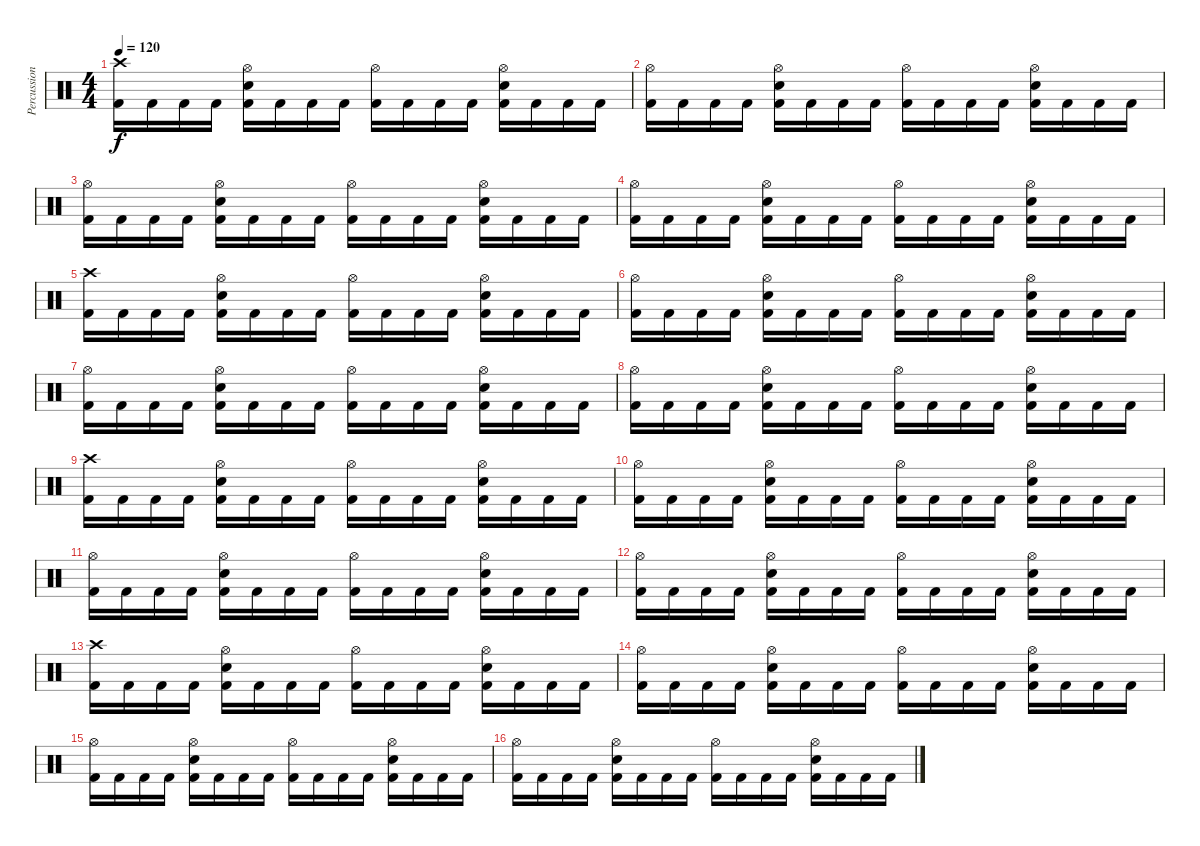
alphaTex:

\track ("Percussion" "Percussion") {instrument percussion}
\staff {score}
\articulation defaults
\ts (4 4)
\tempo 120
\clef neutral
\ks c
("Kick (hit) 2" "Crash high (hit)").16{dy f} "Kick (hit) 2".16 "Kick (hit) 2".16 "Kick (hit) 2".16 ("Kick (hit) 2" "Electric Snare (hit)" "Hi-Hat (open)").16 "Kick (hit) 2".16 "Kick (hit) 2".16 "Kick (hit) 2".16 ("Kick (hit) 2" "Hi-Hat (open)").16 "Kick (hit) 2".16 "Kick (hit) 2".16 "Kick (hit) 2".16 ("Kick (hit) 2" "Hi-Hat (open)" "Electric Snare (hit)").16 "Kick (hit) 2".16 "Kick (hit) 2".16 "Kick (hit) 2".16 |
("Kick (hit) 2" "Hi-Hat (open)").16 "Kick (hit) 2".16 "Kick (hit) 2".16 "Kick (hit) 2".16 ("Kick (hit) 2" "Electric Snare (hit)" "Hi-Hat (open)").16 "Kick (hit) 2".16 "Kick (hit) 2".16 "Kick (hit) 2".16 ("Kick (hit) 2" "Hi-Hat (open)").16 "Kick (hit) 2".16 "Kick (hit) 2".16 "Kick (hit) 2".16 ("Kick (hit) 2" "Hi-Hat (open)" "Electric Snare (hit)").16 "Kick (hit) 2".16 "Kick (hit) 2".16 "Kick (hit) 2".16 |
("Kick (hit) 2" "Hi-Hat (open)").16 "Kick (hit) 2".16 "Kick (hit) 2".16 "Kick (hit) 2".16 ("Kick (hit) 2" "Electric Snare (hit)" "Hi-Hat (open)").16 "Kick (hit) 2".16 "Kick (hit) 2".16 "Kick (hit) 2".16 ("Kick (hit) 2" "Hi-Hat (open)").16 "Kick (hit) 2".16 "Kick (hit) 2".16 "Kick (hit) 2".16 ("Kick (hit) 2" "Hi-Hat (open)" "Electric Snare (hit)").16 "Kick (hit) 2".16 "Kick (hit) 2".16 "Kick (hit) 2".16 |
("Kick (hit) 2" "Hi-Hat (open)").16 "Kick (hit) 2".16 "Kick (hit) 2".16 "Kick (hit) 2".16 ("Kick (hit) 2" "Electric Snare (hit)" "Hi-Hat (open)").16 "Kick (hit) 2".16 "Kick (hit) 2".16 "Kick (hit) 2".16 ("Kick (hit) 2" "Hi-Hat (open)").16 "Kick (hit) 2".16 "Kick (hit) 2".16 "Kick (hit) 2".16 ("Kick (hit) 2" "Hi-Hat (open)" "Electric Snare (hit)").16 "Kick (hit) 2".16 "Kick (hit) 2".16 "Kick (hit) 2".16 |
("Kick (hit) 2" "Crash high (hit)").16 "Kick (hit) 2".16 "Kick (hit) 2".16 "Kick (hit) 2".16 ("Kick (hit) 2" "Electric Snare (hit)" "Hi-Hat (open)").16 "Kick (hit) 2".16 "Kick (hit) 2".16 "Kick (hit) 2".16 ("Kick (hit) 2" "Hi-Hat (open)").16 "Kick (hit) 2".16 "Kick (hit) 2".16 "Kick (hit) 2".16 ("Kick (hit) 2" "Hi-Hat (open)" "Electric Snare (hit)").16 "Kick (hit) 2".16 "Kick (hit) 2".16 "Kick (hit) 2".16 |
("Kick (hit) 2" "Hi-Hat (open)").16 "Kick (hit) 2".16 "Kick (hit) 2".16 "Kick (hit) 2".16 ("Kick (hit) 2" "Electric Snare (hit)" "Hi-Hat (open)").16 "Kick (hit) 2".16 "Kick (hit) 2".16 "Kick (hit) 2".16 ("Kick (hit) 2" "Hi-Hat (open)").16 "Kick (hit) 2".16 "Kick (hit) 2".16 "Kick (hit) 2".16 ("Kick (hit) 2" "Hi-Hat (open)" "Electric Snare (hit)").16 "Kick (hit) 2".16 "Kick (hit) 2".16 "Kick (hit) 2".16 |
("Kick (hit) 2" "Hi-Hat (open)").16 "Kick (hit) 2".16 "Kick (hit) 2".16 "Kick (hit) 2".16 ("Kick (hit) 2" "Electric Snare (hit)" "Hi-Hat (open)").16 "Kick (hit) 2".16 "Kick (hit) 2".16 "Kick (hit) 2".16 ("Kick (hit) 2" "Hi-Hat (open)").16 "Kick (hit) 2".16 "Kick (hit) 2".16 "Kick (hit) 2".16 ("Kick (hit) 2" "Hi-Hat (open)" "Electric Snare (hit)").16 "Kick (hit) 2".16 "Kick (hit) 2".16 "Kick (hit) 2".16 |
("Kick (hit) 2" "Hi-Hat (open)").16 "Kick (hit) 2".16 "Kick (hit) 2".16 "Kick (hit) 2".16 ("Kick (hit) 2" "Electric Snare (hit)" "Hi-Hat (open)").16 "Kick (hit) 2".16 "Kick (hit) 2".16 "Kick (hit) 2".16 ("Kick (hit) 2" "Hi-Hat (open)").16 "Kick (hit) 2".16 "Kick (hit) 2".16 "Kick (hit) 2".16 ("Kick (hit) 2" "Hi-Hat (open)" "Electric Snare (hit)").16 "Kick (hit) 2".16 "Kick (hit) 2".16 "Kick (hit) 2".16 |
("Kick (hit) 2" "Crash high (hit)").16 "Kick (hit) 2".16 "Kick (hit) 2".16 "Kick (hit) 2".16 ("Kick (hit) 2" "Electric Snare (hit)" "Hi-Hat (open)").16 "Kick (hit) 2".16 "Kick (hit) 2".16 "Kick (hit) 2".16 ("Kick (hit) 2" "Hi-Hat (open)").16 "Kick (hit) 2".16 "Kick (hit) 2".16 "Kick (hit) 2".16 ("Kick (hit) 2" "Hi-Hat (open)" "Electric Snare (hit)").16 "Kick (hit) 2".16 "Kick (hit) 2".16 "Kick (hit) 2".16 |
("Kick (hit) 2" "Hi-Hat (open)").16 "Kick (hit) 2".16 "Kick (hit) 2".16 "Kick (hit) 2".16 ("Kick (hit) 2" "Electric Snare (hit)" "Hi-Hat (open)").16 "Kick (hit) 2".16 "Kick (hit) 2".16 "Kick (hit) 2".16 ("Kick (hit) 2" "Hi-Hat (open)").16 "Kick (hit) 2".16 "Kick (hit) 2".16 "Kick (hit) 2".16 ("Kick (hit) 2" "Hi-Hat (open)" "Electric Snare (hit)").16 "Kick (hit) 2".16 "Kick (hit) 2".16 "Kick (hit) 2".16 |
("Kick (hit) 2" "Hi-Hat (open)").16 "Kick (hit) 2".16 "Kick (hit) 2".16 "Kick (hit) 2".16 ("Kick (hit) 2" "Electric Snare (hit)" "Hi-Hat (open)").16 "Kick (hit) 2".16 "Kick (hit) 2".16 "Kick (hit) 2".16 ("Kick (hit) 2" "Hi-Hat (open)").16 "Kick (hit) 2".16 "Kick (hit) 2".16 "Kick (hit) 2".16 ("Kick (hit) 2" "Hi-Hat (open)" "Electric Snare (hit)").16 "Kick (hit) 2".16 "Kick (hit) 2".16 "Kick (hit) 2".16 |
("Kick (hit) 2" "Hi-Hat (open)").16 "Kick (hit) 2".16 "Kick (hit) 2".16 "Kick (hit) 2".16 ("Kick (hit) 2" "Electric Snare (hit)" "Hi-Hat (open)").16 "Kick (hit) 2".16 "Kick (hit) 2".16 "Kick (hit) 2".16 ("Kick (hit) 2" "Hi-Hat (open)").16 "Kick (hit) 2".16 "Kick (hit) 2".16 "Kick (hit) 2".16 ("Kick (hit) 2" "Hi-Hat (open)" "Electric Snare (hit)").16 "Kick (hit) 2".16 "Kick (hit) 2".16 "Kick (hit) 2".16 |
("Kick (hit) 2" "Crash high (hit)").16 "Kick (hit) 2".16 "Kick (hit) 2".16 "Kick (hit) 2".16 ("Kick (hit) 2" "Electric Snare (hit)" "Hi-Hat (open)").16 "Kick (hit) 2".16 "Kick (hit) 2".16 "Kick (hit) 2".16 ("Kick (hit) 2" "Hi-Hat (open)").16 "Kick (hit) 2".16 "Kick (hit) 2".16 "Kick (hit) 2".16 ("Kick (hit) 2" "Hi-Hat (open)" "Electric Snare (hit)").16 "Kick (hit) 2".16 "Kick (hit) 2".16 "Kick (hit) 2".16 |
("Kick (hit) 2" "Hi-Hat (open)").16 "Kick (hit) 2".16 "Kick (hit) 2".16 "Kick (hit) 2".16 ("Kick (hit) 2" "Electric Snare (hit)" "Hi-Hat (open)").16 "Kick (hit) 2".16 "Kick (hit) 2".16 "Kick (hit) 2".16 ("Kick (hit) 2" "Hi-Hat (open)").16 "Kick (hit) 2".16 "Kick (hit) 2".16 "Kick (hit) 2".16 ("Kick (hit) 2" "Hi-Hat (open)" "Electric Snare (hit)").16 "Kick (hit) 2".16 "Kick (hit) 2".16 "Kick (hit) 2".16 |
("Kick (hit) 2" "Hi-Hat (open)").16 "Kick (hit) 2".16 "Kick (hit) 2".16 "Kick (hit) 2".16 ("Kick (hit) 2" "Electric Snare (hit)" "Hi-Hat (open)").16 "Kick (hit) 2".16 "Kick (hit) 2".16 "Kick (hit) 2".16 ("Kick (hit) 2" "Hi-Hat (open)").16 "Kick (hit) 2".16 "Kick (hit) 2".16 "Kick (hit) 2".16 ("Kick (hit) 2" "Hi-Hat (open)" "Electric Snare (hit)").16 "Kick (hit) 2".16 "Kick (hit) 2".16 "Kick (hit) 2".16 |
("Kick (hit) 2" "Hi-Hat (open)").16 "Kick (hit) 2".16 "Kick (hit) 2".16 "Kick (hit) 2".16 ("Kick (hit) 2" "Electric Snare (hit)" "Hi-Hat (open)").16 "Kick (hit) 2".16 "Kick (hit) 2".16 "Kick (hit) 2".16 ("Kick (hit) 2" "Hi-Hat (open)").16 "Kick (hit) 2".16 "Kick (hit) 2".16 "Kick (hit) 2".16 ("Kick (hit) 2" "Hi-Hat (open)" "Electric Snare (hit)").16 "Kick (hit) 2".16 "Kick (hit) 2".16 "Kick (hit) 2".16
